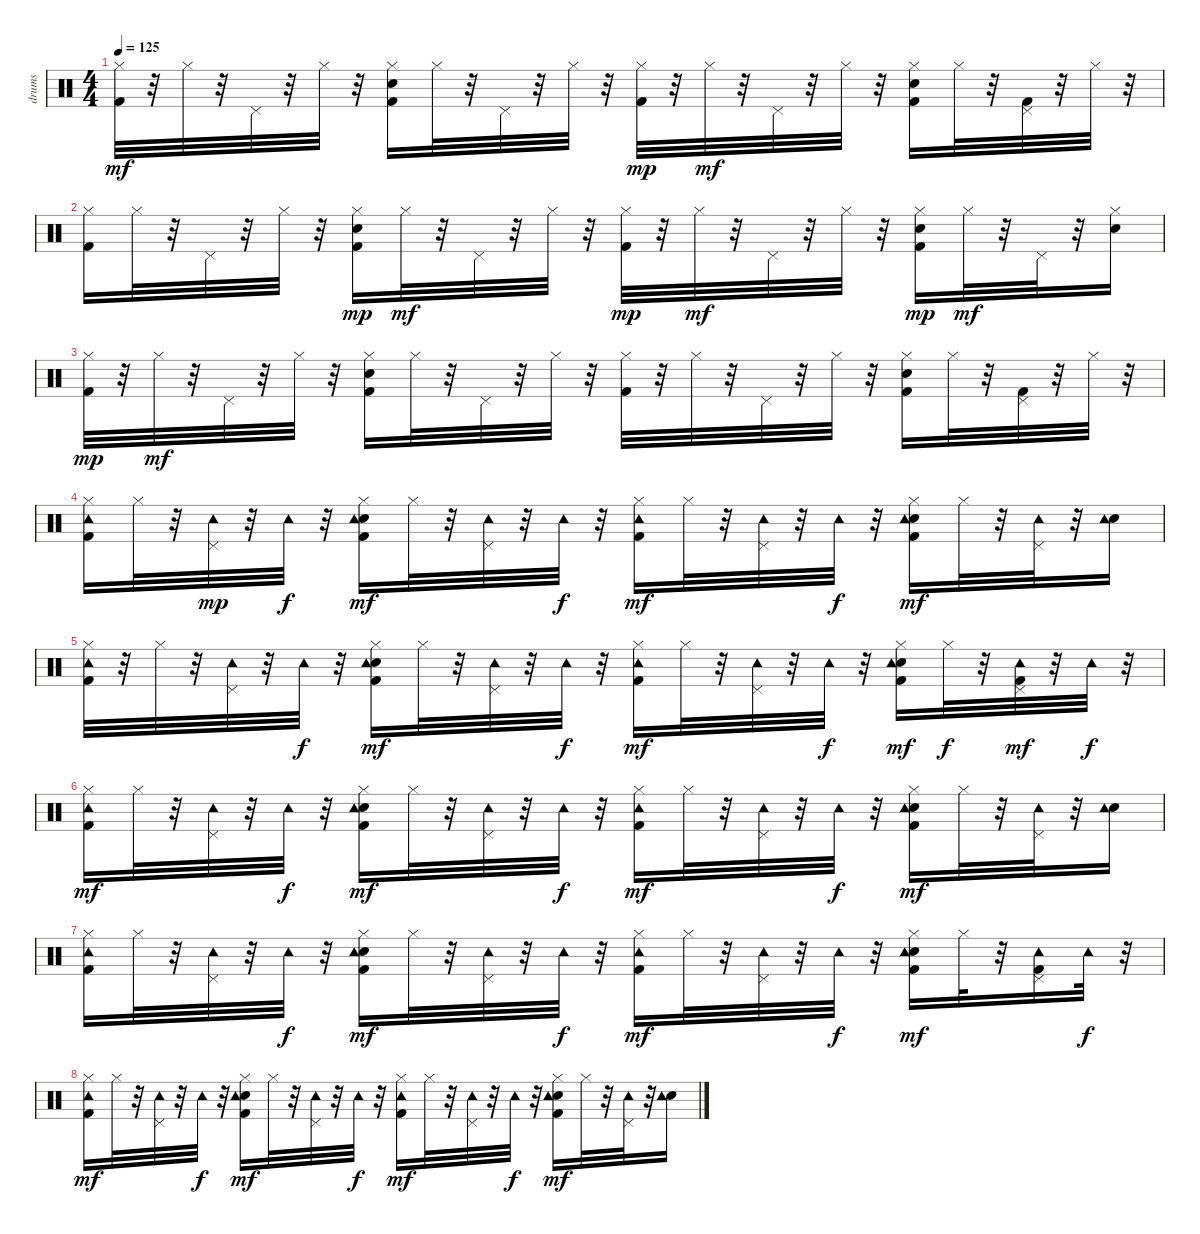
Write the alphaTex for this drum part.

\track ("drums   " "drums   ") {instrument percussion}
\staff {score}
\articulation defaults
\ts (4 4)
\tempo 125
\clef neutral
\ks c
("Kick (hit) 2" "Hi-Hat (closed)").32{dy mf} r.32 "Hi-Hat (closed)".32 r.32 "Pedal Hi-Hat (hit)".32 r.32 "Hi-Hat (closed)".32 r.32 ("Kick (hit) 2" "Snare (hit) 2" "Hi-Hat (closed)").16 "Hi-Hat (closed)".32 r.32 "Pedal Hi-Hat (hit)".32 r.32 "Hi-Hat (closed)".32 r.32 ("Kick (hit) 2" "Hi-Hat (closed)").32{dy mp} r.32 "Hi-Hat (closed)".32{dy mf} r.32 "Pedal Hi-Hat (hit)".32 r.32 "Hi-Hat (closed)".32 r.32 ("Kick (hit) 2" "Snare (hit) 2" "Hi-Hat (closed)").16 "Hi-Hat (closed)".32 r.32 ("Kick (hit) 2" "Pedal Hi-Hat (hit)").32 r.32 "Hi-Hat (closed)".32 r.32 |
("Kick (hit) 2" "Hi-Hat (closed)").16 "Hi-Hat (closed)".32 r.32 "Pedal Hi-Hat (hit)".32 r.32 "Hi-Hat (closed)".32 r.32 ("Kick (hit) 2" "Snare (hit) 2" "Hi-Hat (closed)").16{dy mp} "Hi-Hat (closed)".32{dy mf} r.32 "Pedal Hi-Hat (hit)".32 r.32 "Hi-Hat (closed)".32 r.32 ("Kick (hit) 2" "Hi-Hat (closed)").32{dy mp} r.32 "Hi-Hat (closed)".32{dy mf} r.32 "Pedal Hi-Hat (hit)".32 r.32 "Hi-Hat (closed)".32 r.32 ("Kick (hit) 2" "Snare (hit) 2" "Hi-Hat (closed)").16{dy mp} "Hi-Hat (closed)".32{dy mf} r.32 "Pedal Hi-Hat (hit)".32 r.32 ("Snare (hit) 2" "Hi-Hat (closed)").16 |
("Kick (hit) 2" "Hi-Hat (closed)").32{dy mp} r.32 "Hi-Hat (closed)".32{dy mf} r.32 "Pedal Hi-Hat (hit)".32 r.32 "Hi-Hat (closed)".32 r.32 ("Kick (hit) 2" "Snare (hit) 2" "Hi-Hat (closed)").16 "Hi-Hat (closed)".32 r.32 "Pedal Hi-Hat (hit)".32 r.32 "Hi-Hat (closed)".32 r.32 ("Kick (hit) 2" "Hi-Hat (closed)").32 r.32 "Hi-Hat (closed)".32 r.32 "Pedal Hi-Hat (hit)".32 r.32 "Hi-Hat (closed)".32 r.32 ("Kick (hit) 2" "Snare (hit) 2" "Hi-Hat (closed)").16 "Hi-Hat (closed)".32 r.32 ("Kick (hit) 2" "Pedal Hi-Hat (hit)").32 r.32 "Hi-Hat (closed)".32 r.32 |
("Kick (hit) 2" "Hi-Hat (closed)" "Tambourine (hit)").16 "Hi-Hat (closed)".32 r.32 ("Pedal Hi-Hat (hit)" "Tambourine (hit)").32{dy mp} r.32 "Tambourine (hit)".32{dy f} r.32 ("Kick (hit) 2" "Snare (hit) 2" "Hi-Hat (closed)" "Tambourine (hit)").16{dy mf} "Hi-Hat (closed)".32 r.32 ("Pedal Hi-Hat (hit)" "Tambourine (hit)").32 r.32 "Tambourine (hit)".32{dy f} r.32 ("Kick (hit) 2" "Hi-Hat (closed)" "Tambourine (hit)").16{dy mf} "Hi-Hat (closed)".32 r.32 ("Pedal Hi-Hat (hit)" "Tambourine (hit)").32 r.32 "Tambourine (hit)".32{dy f} r.32 ("Kick (hit) 2" "Snare (hit) 2" "Hi-Hat (closed)" "Tambourine (hit)").16{dy mf} "Hi-Hat (closed)".32 r.32 ("Pedal Hi-Hat (hit)" "Tambourine (hit)").32 r.32 ("Snare (hit) 2" "Tambourine (hit)").16 |
("Kick (hit) 2" "Hi-Hat (closed)" "Tambourine (hit)").32 r.32 "Hi-Hat (closed)".32 r.32 ("Pedal Hi-Hat (hit)" "Tambourine (hit)").32 r.32 "Tambourine (hit)".32{dy f} r.32 ("Kick (hit) 2" "Snare (hit) 2" "Hi-Hat (closed)" "Tambourine (hit)").16{dy mf} "Hi-Hat (closed)".32 r.32 ("Pedal Hi-Hat (hit)" "Tambourine (hit)").32 r.32 "Tambourine (hit)".32{dy f} r.32 ("Kick (hit) 2" "Hi-Hat (closed)" "Tambourine (hit)").16{dy mf} "Hi-Hat (closed)".32 r.32 ("Pedal Hi-Hat (hit)" "Tambourine (hit)").32 r.32 "Tambourine (hit)".32{dy f} r.32 ("Kick (hit) 2" "Snare (hit) 2" "Hi-Hat (closed)" "Tambourine (hit)").16{dy mf} "Hi-Hat (closed)".32{dy f} r.32 ("Kick (hit) 2" "Pedal Hi-Hat (hit)" "Tambourine (hit)").32{dy mf} r.32 "Tambourine (hit)".32{dy f} r.32 |
("Kick (hit) 2" "Hi-Hat (closed)" "Tambourine (hit)").16{dy mf} "Hi-Hat (closed)".32 r.32 ("Pedal Hi-Hat (hit)" "Tambourine (hit)").32 r.32 "Tambourine (hit)".32{dy f} r.32 ("Kick (hit) 2" "Snare (hit) 2" "Hi-Hat (closed)" "Tambourine (hit)").16{dy mf} "Hi-Hat (closed)".32 r.32 ("Pedal Hi-Hat (hit)" "Tambourine (hit)").32 r.32 "Tambourine (hit)".32{dy f} r.32 ("Kick (hit) 2" "Hi-Hat (closed)" "Tambourine (hit)").16{dy mf} "Hi-Hat (closed)".32 r.32 ("Pedal Hi-Hat (hit)" "Tambourine (hit)").32 r.32 "Tambourine (hit)".32{dy f} r.32 ("Kick (hit) 2" "Snare (hit) 2" "Hi-Hat (closed)" "Tambourine (hit)").16{dy mf} "Hi-Hat (closed)".32 r.32 ("Pedal Hi-Hat (hit)" "Tambourine (hit)").32 r.32 ("Snare (hit) 2" "Tambourine (hit)").16 |
("Kick (hit) 2" "Hi-Hat (closed)" "Tambourine (hit)").16 "Hi-Hat (closed)".32 r.32 ("Pedal Hi-Hat (hit)" "Tambourine (hit)").32 r.32 "Tambourine (hit)".32{dy f} r.32 ("Kick (hit) 2" "Snare (hit) 2" "Hi-Hat (closed)" "Tambourine (hit)").16{dy mf} "Hi-Hat (closed)".32 r.32 ("Pedal Hi-Hat (hit)" "Tambourine (hit)").32 r.32 "Tambourine (hit)".32{dy f} r.32 ("Kick (hit) 2" "Hi-Hat (closed)" "Tambourine (hit)").16{dy mf} "Hi-Hat (closed)".32 r.32 ("Pedal Hi-Hat (hit)" "Tambourine (hit)").32 r.32 "Tambourine (hit)".32{dy f} r.32 ("Kick (hit) 2" "Snare (hit) 2" "Hi-Hat (closed)" "Tambourine (hit)").16{dy mf} "Hi-Hat (closed)".32 r.32 ("Kick (hit) 2" "Pedal Hi-Hat (hit)" "Tambourine (hit)").16 "Tambourine (hit)".32{dy f} r.32 |
("Kick (hit) 2" "Hi-Hat (closed)" "Tambourine (hit)").16{dy mf} "Hi-Hat (closed)".32 r.32 ("Pedal Hi-Hat (hit)" "Tambourine (hit)").32 r.32 "Tambourine (hit)".32{dy f} r.32 ("Kick (hit) 2" "Snare (hit) 2" "Hi-Hat (closed)" "Tambourine (hit)").16{dy mf} "Hi-Hat (closed)".32 r.32 ("Pedal Hi-Hat (hit)" "Tambourine (hit)").32 r.32 "Tambourine (hit)".32{dy f} r.32 ("Kick (hit) 2" "Hi-Hat (closed)" "Tambourine (hit)").16{dy mf} "Hi-Hat (closed)".32 r.32 ("Pedal Hi-Hat (hit)" "Tambourine (hit)").32 r.32 "Tambourine (hit)".32{dy f} r.32 ("Kick (hit) 2" "Snare (hit) 2" "Hi-Hat (closed)" "Tambourine (hit)").16{dy mf} "Hi-Hat (closed)".32 r.32 ("Pedal Hi-Hat (hit)" "Tambourine (hit)").32 r.32 ("Snare (hit) 2" "Tambourine (hit)").16
